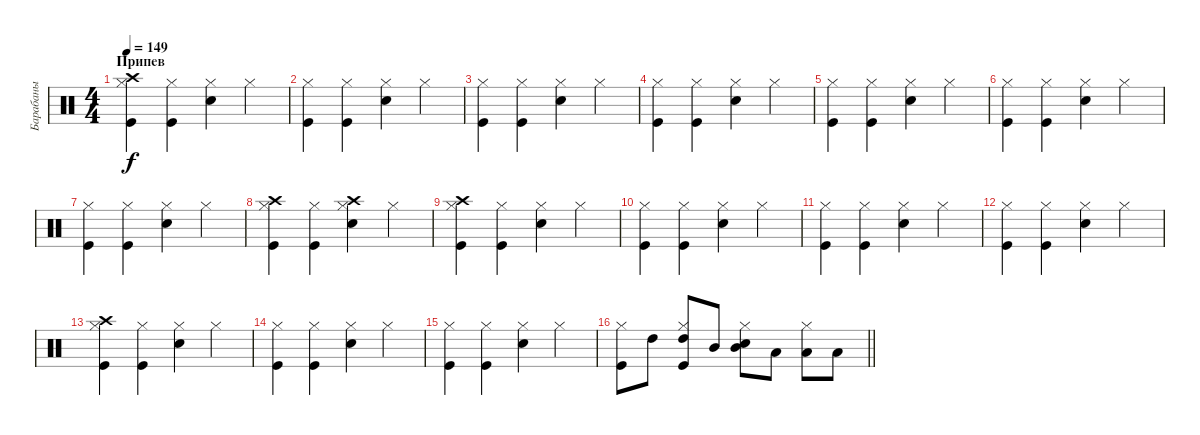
\track ("Барабаны" "Барабаны") {instrument percussion}
\staff {score}
\articulation defaults
\ts (4 4)
\section ("" "Припев")
\tempo 149
\clef neutral
\ks c
("Kick (hit)" "Hi-Hat (closed)" "Crash high (hit)").4{dy f} ("Kick (hit)" "Hi-Hat (closed)").4 ("Snare (hit) 2" "Hi-Hat (closed)").4 "Hi-Hat (closed)".4 |
("Kick (hit)" "Hi-Hat (closed)").4 ("Kick (hit)" "Hi-Hat (closed)").4 ("Snare (hit) 2" "Hi-Hat (closed)").4 "Hi-Hat (closed)".4 |
("Kick (hit)" "Hi-Hat (closed)").4 ("Kick (hit)" "Hi-Hat (closed)").4 ("Snare (hit) 2" "Hi-Hat (closed)").4 "Hi-Hat (closed)".4 |
("Kick (hit)" "Hi-Hat (closed)").4 ("Kick (hit)" "Hi-Hat (closed)").4 ("Snare (hit) 2" "Hi-Hat (closed)").4 "Hi-Hat (closed)".4 |
("Kick (hit)" "Hi-Hat (closed)").4 ("Kick (hit)" "Hi-Hat (closed)").4 ("Snare (hit) 2" "Hi-Hat (closed)").4 "Hi-Hat (closed)".4 |
("Kick (hit)" "Hi-Hat (closed)").4 ("Kick (hit)" "Hi-Hat (closed)").4 ("Snare (hit) 2" "Hi-Hat (closed)").4 "Hi-Hat (closed)".4 |
("Kick (hit)" "Hi-Hat (closed)").4 ("Kick (hit)" "Hi-Hat (closed)").4 ("Snare (hit) 2" "Hi-Hat (closed)").4 "Hi-Hat (closed)".4 |
("Kick (hit)" "Hi-Hat (closed)" "Crash high (hit)").4 ("Kick (hit)" "Hi-Hat (closed)").4 ("Snare (hit) 2" "Hi-Hat (closed)" "Crash high (hit)").4 "Hi-Hat (closed)".4 |
("Kick (hit)" "Hi-Hat (closed)" "Crash high (hit)").4 ("Kick (hit)" "Hi-Hat (closed)").4 ("Snare (hit) 2" "Hi-Hat (closed)").4 "Hi-Hat (closed)".4 |
("Kick (hit)" "Hi-Hat (closed)").4 ("Kick (hit)" "Hi-Hat (closed)").4 ("Snare (hit) 2" "Hi-Hat (closed)").4 "Hi-Hat (closed)".4 |
("Kick (hit)" "Hi-Hat (closed)").4 ("Kick (hit)" "Hi-Hat (closed)").4 ("Snare (hit) 2" "Hi-Hat (closed)").4 "Hi-Hat (closed)".4 |
("Kick (hit)" "Hi-Hat (closed)").4 ("Kick (hit)" "Hi-Hat (closed)").4 ("Snare (hit) 2" "Hi-Hat (closed)").4 "Hi-Hat (closed)".4 |
("Kick (hit)" "Hi-Hat (closed)" "Crash high (hit)").4 ("Kick (hit)" "Hi-Hat (closed)").4 ("Snare (hit) 2" "Hi-Hat (closed)").4 "Hi-Hat (closed)".4 |
("Kick (hit)" "Hi-Hat (closed)").4 ("Kick (hit)" "Hi-Hat (closed)").4 ("Snare (hit) 2" "Hi-Hat (closed)").4 "Hi-Hat (closed)".4 |
("Kick (hit)" "Hi-Hat (closed)").4 ("Kick (hit)" "Hi-Hat (closed)").4 ("Snare (hit) 2" "Hi-Hat (closed)").4 "Hi-Hat (closed)".4 |
\barLineRight lightlight
("Kick (hit)" "Hi-Hat (closed)").8 "High Tom (hit)".8 ("Kick (hit)" "Hi-Hat (closed)" "High Tom (hit)").8 "Mid Tom (hit)".8 ("Snare (hit) 2" "Hi-Hat (closed)" "Mid Tom (hit)").8 "Low Tom (hit)".8 ("Hi-Hat (closed)" "Low Tom (hit)").8 "Low Tom (hit)".8
